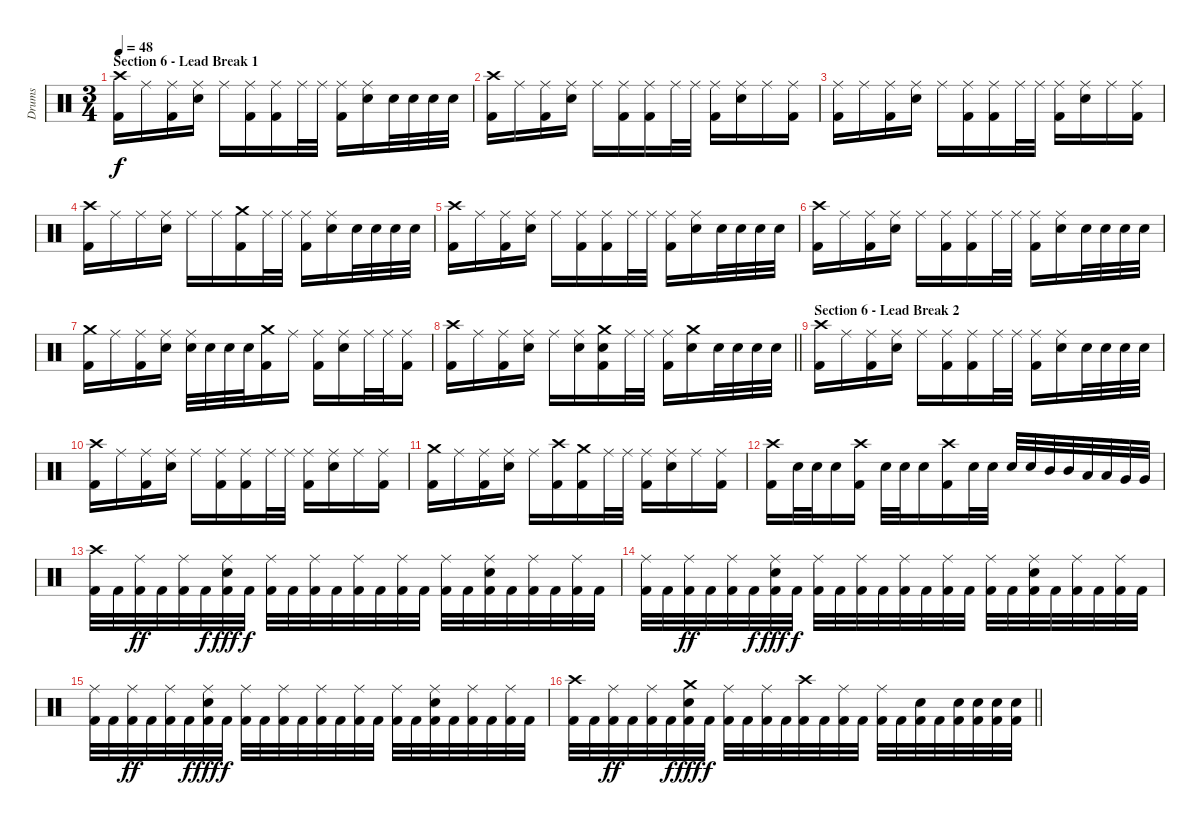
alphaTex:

\track ("Drums" "Drums") {instrument percussion}
\staff {score}
\articulation defaults
\ts (3 4)
\section ("" "Section 6 - Lead Break 1")
\tempo 48
\clef neutral
\ks c
("Crash high (hit)" "Kick (hit) 2").16{dy f} "Ride (middle)".16 ("Ride (middle)" "Kick (hit) 2").16 ("Ride (middle)" "Electric Snare (hit)").16 "Ride (middle)".16 ("Ride (middle)" "Kick (hit) 2").16 ("Ride (middle)" "Kick (hit) 2").16 "Ride (middle)".32 "Ride (middle)".32 ("Ride (middle)" "Kick (hit) 2").16 ("Ride (middle)" "Electric Snare (hit)").16 "Electric Snare (hit)".32 "Electric Snare (hit)".32 "Electric Snare (hit)".32 "Electric Snare (hit)".32 |
("Crash high (hit)" "Kick (hit) 2").16 "Ride (middle)".16 ("Ride (middle)" "Kick (hit) 2").16 ("Ride (middle)" "Electric Snare (hit)").16 "Ride (middle)".16 ("Ride (middle)" "Kick (hit) 2").16 ("Ride (middle)" "Kick (hit) 2").16 "Ride (middle)".32 "Ride (middle)".32 ("Ride (middle)" "Kick (hit) 2").16 ("Ride (middle)" "Electric Snare (hit)").16 "Ride (middle)".16 ("Ride (middle)" "Kick (hit) 2").16 |
("Ride (middle)" "Kick (hit) 2").16 "Ride (middle)".16 ("Ride (middle)" "Kick (hit) 2").16 ("Ride (middle)" "Electric Snare (hit)").16 "Ride (middle)".16 ("Ride (middle)" "Kick (hit) 2").16 ("Ride (middle)" "Kick (hit) 2").16 "Ride (middle)".32 "Ride (middle)".32 ("Ride (middle)" "Kick (hit) 2").16 ("Ride (middle)" "Electric Snare (hit)").16 "Ride (middle)".16 ("Ride (middle)" "Kick (hit) 2").16 |
("Crash high (hit)" "Kick (hit) 2").16 "Ride (middle)".16 "Ride (middle)".16 ("Ride (middle)" "Electric Snare (hit)").16 "Ride (middle)".16 "Ride (middle)".16 ("Crash medium (hit)" "Kick (hit) 2").16 "Ride (middle)".32 "Ride (middle)".32 ("Ride (middle)" "Kick (hit) 2").16 ("Ride (middle)" "Electric Snare (hit)").16 "Electric Snare (hit)".32 "Electric Snare (hit)".32 "Electric Snare (hit)".32 "Electric Snare (hit)".32 |
("Crash high (hit)" "Kick (hit) 2").16 "Ride (middle)".16 ("Ride (middle)" "Kick (hit) 2").16 ("Ride (middle)" "Electric Snare (hit)").16 "Ride (middle)".16 ("Ride (middle)" "Kick (hit) 2").16 ("Ride (middle)" "Kick (hit) 2").16 "Ride (middle)".32 "Ride (middle)".32 ("Ride (middle)" "Kick (hit) 2").16 ("Ride (middle)" "Electric Snare (hit)").16 "Electric Snare (hit)".32 "Electric Snare (hit)".32 "Electric Snare (hit)".32 "Electric Snare (hit)".32 |
("Crash high (hit)" "Kick (hit) 2").16 "Ride (middle)".16 ("Ride (middle)" "Kick (hit) 2").16 ("Ride (middle)" "Electric Snare (hit)").16 "Ride (middle)".16 ("Ride (middle)" "Kick (hit) 2").16 ("Ride (middle)" "Kick (hit) 2").16 "Ride (middle)".32 "Ride (middle)".32 ("Ride (middle)" "Kick (hit) 2").16 ("Ride (middle)" "Electric Snare (hit)").16 "Electric Snare (hit)".32 "Electric Snare (hit)".32 "Electric Snare (hit)".32 "Electric Snare (hit)".32 |
("Crash medium (hit)" "Kick (hit) 2").16 "Ride (middle)".16 ("Ride (middle)" "Kick (hit) 2").16 ("Ride (middle)" "Electric Snare (hit)").16 ("Ride (middle)" "Electric Snare (hit)").32 "Electric Snare (hit)".32 "Electric Snare (hit)".32 "Electric Snare (hit)".32 ("Crash medium (hit)" "Kick (hit) 2").16 "Ride (middle)".16 ("Ride (middle)" "Kick (hit) 2").16 ("Ride (middle)" "Electric Snare (hit)").16 "Ride (middle)".32 "Ride (middle)".32 ("Ride (middle)" "Kick (hit) 2").16 |
\barLineRight lightlight
("Crash high (hit)" "Kick (hit) 2").16 "Ride (middle)".16 ("Ride (middle)" "Kick (hit) 2").16 ("Ride (middle)" "Electric Snare (hit)").16 "Ride (middle)".16 ("Ride (middle)" "Electric Snare (hit)").16 ("Crash medium (hit)" "Electric Snare (hit)" "Kick (hit) 2").16 "Ride (middle)".32 "Ride (middle)".32 ("Ride (middle)" "Kick (hit) 2").16 ("Crash medium (hit)" "Electric Snare (hit)").16 "Electric Snare (hit)".32 "Electric Snare (hit)".32 "Electric Snare (hit)".32 "Electric Snare (hit)".32 |
\section ("" "Section 6 - Lead Break 2")
("Crash high (hit)" "Kick (hit) 2").16 "Ride (middle)".16 ("Ride (middle)" "Kick (hit) 2").16 ("Ride (middle)" "Electric Snare (hit)").16 "Ride (middle)".16 ("Ride (middle)" "Kick (hit) 2").16 ("Ride (middle)" "Kick (hit) 2").16 "Ride (middle)".32 "Ride (middle)".32 ("Ride (middle)" "Kick (hit) 2").16 ("Ride (middle)" "Electric Snare (hit)").16 "Electric Snare (hit)".32 "Electric Snare (hit)".32 "Electric Snare (hit)".32 "Electric Snare (hit)".32 |
("Crash high (hit)" "Kick (hit) 2").16 "Ride (middle)".16 ("Ride (middle)" "Kick (hit) 2").16 ("Ride (middle)" "Electric Snare (hit)").16 "Ride (middle)".16 ("Ride (middle)" "Kick (hit) 2").16 ("Ride (middle)" "Kick (hit) 2").16 "Ride (middle)".32 "Ride (middle)".32 ("Ride (middle)" "Kick (hit) 2").16 ("Ride (middle)" "Electric Snare (hit)").16 "Ride (middle)".16 ("Ride (middle)" "Kick (hit) 2").16 |
("Crash medium (hit)" "Kick (hit) 2").16 "Ride (middle)".16 ("Ride (middle)" "Kick (hit) 2").16 ("Ride (middle)" "Electric Snare (hit)").16 "Ride (middle)".16 ("Crash high (hit)" "Kick (hit) 2").16 ("Crash medium (hit)" "Kick (hit) 2").16 "Ride (middle)".32 "Ride (middle)".32 ("Ride (middle)" "Kick (hit) 2").16 ("Ride (middle)" "Electric Snare (hit)").16 "Ride (middle)".16 ("Ride (middle)" "Kick (hit) 2").16 |
("Crash high (hit)" "Kick (hit) 2").16 "Electric Snare (hit)".32 "Electric Snare (hit)".32 "Electric Snare (hit)".16 ("Crash high (hit)" "Kick (hit) 2").16 "Electric Snare (hit)".32 "Electric Snare (hit)".32 "Electric Snare (hit)".16 ("Crash high (hit)" "Kick (hit) 2").16 "Electric Snare (hit)".32 "Electric Snare (hit)".32 "Electric Snare (hit)".32 "Electric Snare (hit)".32 "Mid Tom (hit)".32 "Mid Tom (hit)".32 "Low Tom (hit)".32 "Low Tom (hit)".32 "Very Low Tom (hit)".32 "Very Low Tom (hit)".32 |
("Crash high (hit)" "Kick (hit) 2").32 "Kick (hit) 2".32 ("Ride (middle)" "Kick (hit) 2").32{dy ff} "Kick (hit) 2".32 ("Ride (middle)" "Kick (hit) 2").32 "Kick (hit) 2".32{dy f} ("Ride (middle)" "Electric Snare (hit)" "Kick (hit) 2").32{dy fff} "Kick (hit) 2".32{dy f} ("Ride (middle)" "Kick (hit) 2").32 "Kick (hit) 2".32 ("Ride (middle)" "Kick (hit) 2").32 "Kick (hit) 2".32 ("Ride (middle)" "Kick (hit) 2").32 "Kick (hit) 2".32 ("Ride (middle)" "Kick (hit) 2").32 "Kick (hit) 2".32 ("Ride (middle)" "Kick (hit) 2").32 "Kick (hit) 2".32 ("Ride (middle)" "Electric Snare (hit)" "Kick (hit) 2").32 "Kick (hit) 2".32 ("Ride (middle)" "Kick (hit) 2").32 "Kick (hit) 2".32 ("Ride (middle)" "Kick (hit) 2").32 "Kick (hit) 2".32 |
("Ride (middle)" "Kick (hit) 2").32 "Kick (hit) 2".32 ("Ride (middle)" "Kick (hit) 2").32{dy ff} "Kick (hit) 2".32 ("Ride (middle)" "Kick (hit) 2").32 "Kick (hit) 2".32{dy f} ("Ride (middle)" "Electric Snare (hit)" "Kick (hit) 2").32{dy fff} "Kick (hit) 2".32{dy f} ("Ride (middle)" "Kick (hit) 2").32 "Kick (hit) 2".32 ("Ride (middle)" "Kick (hit) 2").32 "Kick (hit) 2".32 ("Ride (middle)" "Kick (hit) 2").32 "Kick (hit) 2".32 ("Ride (middle)" "Kick (hit) 2").32 "Kick (hit) 2".32 ("Ride (middle)" "Kick (hit) 2").32 "Kick (hit) 2".32 ("Ride (middle)" "Electric Snare (hit)" "Kick (hit) 2").32 "Kick (hit) 2".32 ("Ride (middle)" "Kick (hit) 2").32 "Kick (hit) 2".32 ("Ride (middle)" "Kick (hit) 2").32 "Kick (hit) 2".32 |
("Ride (middle)" "Kick (hit) 2").32 "Kick (hit) 2".32 ("Ride (middle)" "Kick (hit) 2").32{dy ff} "Kick (hit) 2".32 ("Ride (middle)" "Kick (hit) 2").32 "Kick (hit) 2".32{dy f} ("Ride (middle)" "Electric Snare (hit)" "Kick (hit) 2").32{dy fff} "Kick (hit) 2".32{dy f} ("Ride (middle)" "Kick (hit) 2").32 "Kick (hit) 2".32 ("Ride (middle)" "Kick (hit) 2").32 "Kick (hit) 2".32 ("Ride (middle)" "Kick (hit) 2").32 "Kick (hit) 2".32 ("Ride (middle)" "Kick (hit) 2").32 "Kick (hit) 2".32 ("Ride (middle)" "Kick (hit) 2").32 "Kick (hit) 2".32 ("Ride (middle)" "Electric Snare (hit)" "Kick (hit) 2").32 "Kick (hit) 2".32 ("Ride (middle)" "Kick (hit) 2").32 "Kick (hit) 2".32 ("Ride (middle)" "Kick (hit) 2").32 "Kick (hit) 2".32 |
\barLineRight lightlight
("Crash high (hit)" "Kick (hit) 2").32 "Kick (hit) 2".32 ("Ride (middle)" "Kick (hit) 2").32{dy ff} "Kick (hit) 2".32 ("Ride (middle)" "Kick (hit) 2").32 "Kick (hit) 2".32{dy f} ("Crash medium (hit)" "Electric Snare (hit)" "Kick (hit) 2").32{dy fff} "Kick (hit) 2".32{dy f} ("Ride (middle)" "Kick (hit) 2").32 "Kick (hit) 2".32 ("Ride (middle)" "Kick (hit) 2").32 "Kick (hit) 2".32 ("Crash high (hit)" "Kick (hit) 2").32 "Kick (hit) 2".32 ("Ride (middle)" "Kick (hit) 2").32 "Kick (hit) 2".32 ("Ride (middle)" "Kick (hit) 2").32 "Kick (hit) 2".32 ("Electric Snare (hit)" "Kick (hit) 2").32 "Kick (hit) 2".32 ("Electric Snare (hit)" "Kick (hit) 2").32 ("Electric Snare (hit)" "Kick (hit) 2").32 ("Electric Snare (hit)" "Kick (hit) 2").32 ("Electric Snare (hit)" "Kick (hit) 2").32
